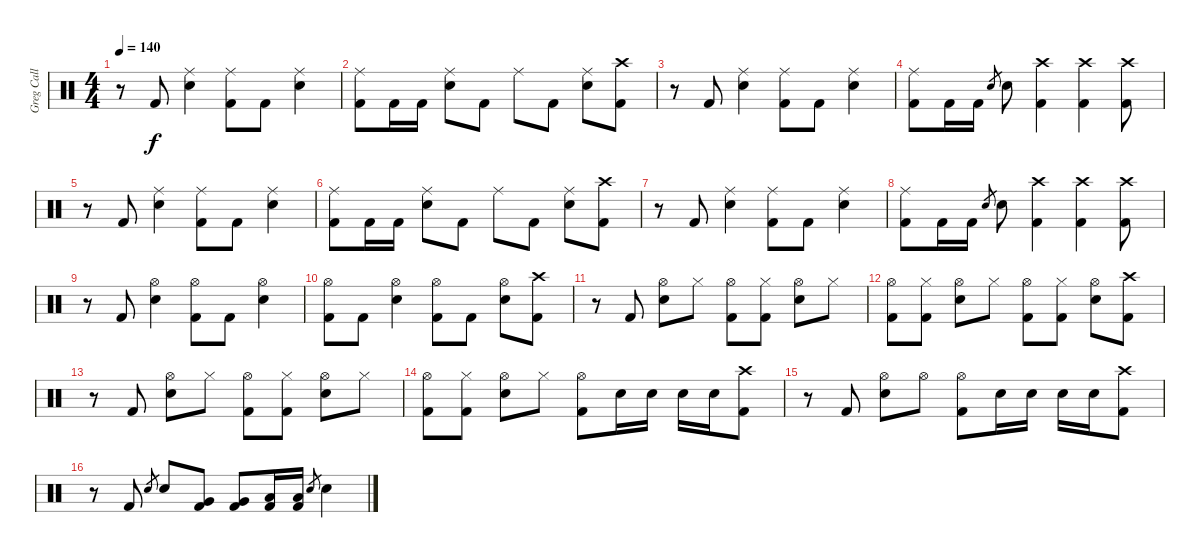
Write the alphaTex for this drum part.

\track ("Greg Call (Drums)" "Greg Call ") {instrument percussion}
\staff {score}
\articulation defaults
\ts (4 4)
\tempo 140
\clef neutral
\ks c
r.8{dy f} "Kick (hit) 2".8 ("Ride (middle)" "Snare (hit) 2").4 ("Ride (middle)" "Kick (hit) 2").8 "Kick (hit) 2".8 ("Ride (middle)" "Snare (hit) 2").4 |
("Ride (middle)" "Kick (hit) 2").8 "Kick (hit) 2".16 "Kick (hit) 2".16 ("Ride (middle)" "Snare (hit) 2").8 "Kick (hit) 2".8 "Ride (middle)".8 "Kick (hit) 2".8 ("Ride (middle)" "Snare (hit) 2").8 ("Crash high (hit)" "Kick (hit) 2").8 |
r.8 "Kick (hit) 2".8 ("Ride (middle)" "Snare (hit) 2").4 ("Ride (middle)" "Kick (hit) 2").8 "Kick (hit) 2".8 ("Ride (middle)" "Snare (hit) 2").4 |
("Ride (middle)" "Kick (hit) 2").8 "Kick (hit) 2".16 "Kick (hit) 2".16 "Snare (hit) 2".8{gr} "Snare (hit) 2".8 ("Crash high (hit)" "Kick (hit) 2").4 ("Crash high (hit)" "Kick (hit) 2").4 ("Crash high (hit)" "Kick (hit) 2").8 |
r.8 "Kick (hit) 2".8 ("Ride (middle)" "Snare (hit) 2").4 ("Ride (middle)" "Kick (hit) 2").8 "Kick (hit) 2".8 ("Ride (middle)" "Snare (hit) 2").4 |
("Ride (middle)" "Kick (hit) 2").8 "Kick (hit) 2".16 "Kick (hit) 2".16 ("Ride (middle)" "Snare (hit) 2").8 "Kick (hit) 2".8 "Ride (middle)".8 "Kick (hit) 2".8 ("Ride (middle)" "Snare (hit) 2").8 ("Crash high (hit)" "Kick (hit) 2").8 |
r.8 "Kick (hit) 2".8 ("Ride (middle)" "Snare (hit) 2").4 ("Ride (middle)" "Kick (hit) 2").8 "Kick (hit) 2".8 ("Ride (middle)" "Snare (hit) 2").4 |
("Ride (middle)" "Kick (hit) 2").8 "Kick (hit) 2".16 "Kick (hit) 2".16 "Snare (hit) 2".8{gr} "Snare (hit) 2".8 ("Crash high (hit)" "Kick (hit) 2").4 ("Crash high (hit)" "Kick (hit) 2").4 ("Crash high (hit)" "Kick (hit) 2").8 |
r.8 "Kick (hit) 2".8 ("Hi-Hat (open)" "Snare (hit) 2").4 ("Hi-Hat (open)" "Kick (hit) 2").8 "Kick (hit) 2".8 ("Hi-Hat (open)" "Snare (hit) 2").4 |
("Hi-Hat (open)" "Kick (hit) 2").8 "Kick (hit) 2".8 ("Hi-Hat (open)" "Snare (hit) 2").4 ("Hi-Hat (open)" "Kick (hit) 2").8 "Kick (hit) 2".8 ("Hi-Hat (open)" "Snare (hit) 2").8 ("Crash high (hit)" "Kick (hit) 2").8 |
r.8 "Kick (hit) 2".8 ("Hi-Hat (open)" "Snare (hit) 2").8 "Hi-Hat (closed)".8 ("Hi-Hat (open)" "Kick (hit) 2").8 ("Hi-Hat (closed)" "Kick (hit) 2").8 ("Hi-Hat (open)" "Snare (hit) 2").8 "Hi-Hat (closed)".8 |
("Hi-Hat (open)" "Kick (hit) 2").8 ("Hi-Hat (closed)" "Kick (hit) 2").8 ("Hi-Hat (open)" "Snare (hit) 2").8 "Hi-Hat (closed)".8 ("Hi-Hat (open)" "Kick (hit) 2").8 ("Hi-Hat (closed)" "Kick (hit) 2").8 ("Hi-Hat (open)" "Snare (hit) 2").8 ("Crash high (hit)" "Kick (hit) 2").8 |
r.8 "Kick (hit) 2".8 ("Hi-Hat (open)" "Snare (hit) 2").8 "Hi-Hat (closed)".8 ("Hi-Hat (open)" "Kick (hit) 2").8 ("Hi-Hat (closed)" "Kick (hit) 2").8 ("Hi-Hat (open)" "Snare (hit) 2").8 "Hi-Hat (closed)".8 |
("Hi-Hat (open)" "Kick (hit) 2").8 ("Hi-Hat (closed)" "Kick (hit) 2").8 ("Hi-Hat (open)" "Snare (hit) 2").8 "Hi-Hat (closed)".8 ("Hi-Hat (open)" "Kick (hit) 2").8 "Snare (hit) 2".16 "Snare (hit) 2".16 "Snare (hit) 2".16 "Snare (hit) 2".16 ("Crash high (hit)" "Kick (hit) 2").8 |
r.8 "Kick (hit) 2".8 ("Hi-Hat (open)" "Snare (hit) 2").8 "Hi-Hat (open)".8 ("Hi-Hat (open)" "Kick (hit) 2").8 "Snare (hit) 2".16 "Snare (hit) 2".16 "Snare (hit) 2".16 "Snare (hit) 2".16 ("Crash high (hit)" "Kick (hit) 2").8 |
r.8 "Kick (hit) 2".8 "Snare (hit) 2".8{gr} "Snare (hit) 2".8 ("Very Low Tom (hit)" "Kick (hit) 2").8 ("Very Low Tom (hit)" "Kick (hit) 2").8 ("Low Floor Tom (hit)" "Kick (hit) 2").16 ("Low Floor Tom (hit)" "Kick (hit) 2").16 "Snare (hit) 2".8{gr} "Snare (hit) 2".4
